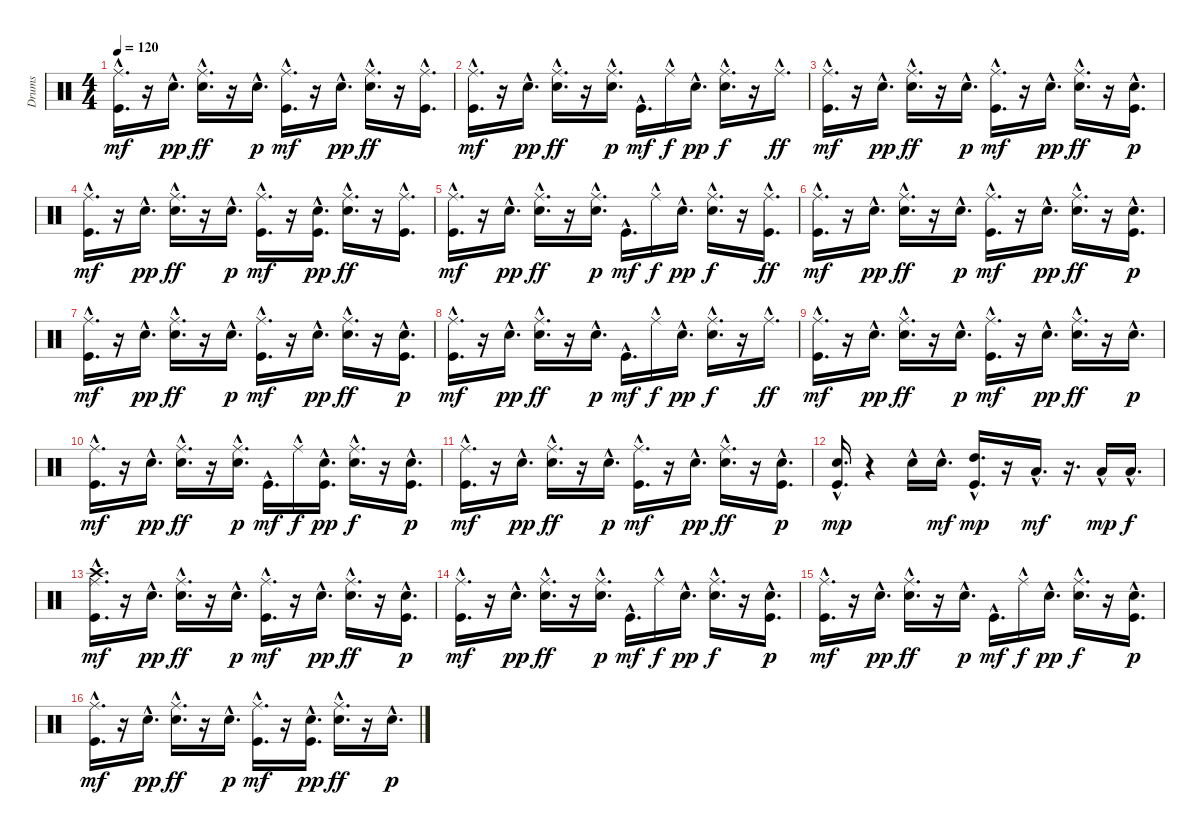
\track ("Drums" "Drums") {instrument percussion}
\staff {score}
\articulation defaults
\ts (4 4)
\tempo 120
\clef neutral
\ks c
("Kick (hit)"{hac} "Ride (middle)"{hac}).16{d dy mf} r.16 "Snare (hit) 2"{hac}.16{d dy pp} ("Snare (hit) 2"{hac} "Ride (middle)"{hac}).16{d dy ff} r.16 "Snare (hit) 2"{hac}.16{d dy p} ("Kick (hit)"{hac} "Ride (middle)"{hac}).16{d dy mf} r.16 "Snare (hit) 2"{hac}.16{d dy pp} ("Snare (hit) 2"{hac} "Ride (middle)"{hac}).16{d dy ff} r.16 ("Kick (hit)"{hac} "Ride (middle)"{hac}).16{d} |
("Kick (hit)"{hac} "Ride (middle)"{hac}).16{d dy mf} r.16 "Snare (hit) 2"{hac}.16{d dy pp} ("Snare (hit) 2"{hac} "Ride (middle)"{hac}).16{d dy ff} r.16 ("Snare (hit) 2"{hac} "Ride (middle)"{hac}).16{d dy p} "Kick (hit)"{hac}.16{d dy mf} "Ride (middle)"{hac}.16{dy f} "Snare (hit) 2"{hac}.16{d dy pp} ("Snare (hit) 2"{hac} "Ride (middle)"{hac}).16{d dy f} r.16 "Ride (middle)"{hac}.16{d dy ff} |
("Kick (hit)"{hac} "Ride (middle)"{hac}).16{d dy mf} r.16 "Snare (hit) 2"{hac}.16{d dy pp} ("Snare (hit) 2"{hac} "Ride (middle)"{hac}).16{d dy ff} r.16 "Snare (hit) 2"{hac}.16{d dy p} ("Kick (hit)"{hac} "Ride (middle)"{hac}).16{d dy mf} r.16 "Snare (hit) 2"{hac}.16{d dy pp} ("Snare (hit) 2"{hac} "Ride (middle)"{hac}).16{d dy ff} r.16 ("Kick (hit)"{hac} "Snare (hit) 2"{hac}).16{d dy p} |
("Kick (hit)"{hac} "Ride (middle)"{hac}).16{d dy mf} r.16 "Snare (hit) 2"{hac}.16{d dy pp} ("Snare (hit) 2"{hac} "Ride (middle)"{hac}).16{d dy ff} r.16 "Snare (hit) 2"{hac}.16{d dy p} ("Kick (hit)"{hac} "Ride (middle)"{hac}).16{d dy mf} r.16 ("Kick (hit)"{hac} "Snare (hit) 2"{hac}).16{d dy pp} ("Snare (hit) 2"{hac} "Ride (middle)"{hac}).16{d dy ff} r.16 ("Kick (hit)"{hac} "Ride (middle)"{hac}).16{d} |
("Kick (hit)"{hac} "Ride (middle)"{hac}).16{d dy mf} r.16 "Snare (hit) 2"{hac}.16{d dy pp} ("Snare (hit) 2"{hac} "Ride (middle)"{hac}).16{d dy ff} r.16 ("Snare (hit) 2"{hac} "Ride (middle)"{hac}).16{d dy p} "Kick (hit)"{hac}.16{d dy mf} "Ride (middle)"{hac}.16{dy f} "Snare (hit) 2"{hac}.16{d dy pp} ("Snare (hit) 2"{hac} "Ride (middle)"{hac}).16{d dy f} r.16 ("Kick (hit)"{hac} "Ride (middle)"{hac}).16{d dy ff} |
("Kick (hit)"{hac} "Ride (middle)"{hac}).16{d dy mf} r.16 "Snare (hit) 2"{hac}.16{d dy pp} ("Snare (hit) 2"{hac} "Ride (middle)"{hac}).16{d dy ff} r.16 "Snare (hit) 2"{hac}.16{d dy p} ("Kick (hit)"{hac} "Ride (middle)"{hac}).16{d dy mf} r.16 "Snare (hit) 2"{hac}.16{d dy pp} ("Snare (hit) 2"{hac} "Ride (middle)"{hac}).16{d dy ff} r.16 ("Kick (hit)"{hac} "Snare (hit) 2"{hac}).16{d dy p} |
("Kick (hit)"{hac} "Ride (middle)"{hac}).16{d dy mf} r.16 "Snare (hit) 2"{hac}.16{d dy pp} ("Snare (hit) 2"{hac} "Ride (middle)"{hac}).16{d dy ff} r.16 "Snare (hit) 2"{hac}.16{d dy p} ("Kick (hit)"{hac} "Ride (middle)"{hac}).16{d dy mf} r.16 "Snare (hit) 2"{hac}.16{d dy pp} ("Snare (hit) 2"{hac} "Ride (middle)"{hac}).16{d dy ff} r.16 ("Kick (hit)"{hac} "Snare (hit) 2"{hac}).16{d dy p} |
("Kick (hit)"{hac} "Ride (middle)"{hac}).16{d dy mf} r.16 "Snare (hit) 2"{hac}.16{d dy pp} ("Snare (hit) 2"{hac} "Ride (middle)"{hac}).16{d dy ff} r.16 "Snare (hit) 2"{hac}.16{d dy p} "Kick (hit)"{hac}.16{d dy mf} "Ride (middle)"{hac}.16{dy f} "Snare (hit) 2"{hac}.16{d dy pp} ("Snare (hit) 2"{hac} "Ride (middle)"{hac}).16{d dy f} r.16 "Ride (middle)"{hac}.16{d dy ff} |
("Kick (hit)"{hac} "Ride (middle)"{hac}).16{d dy mf} r.16 "Snare (hit) 2"{hac}.16{d dy pp} ("Snare (hit) 2"{hac} "Ride (middle)"{hac}).16{d dy ff} r.16 "Snare (hit) 2"{hac}.16{d dy p} ("Kick (hit)"{hac} "Ride (middle)"{hac}).16{d dy mf} r.16 "Snare (hit) 2"{hac}.16{d dy pp} ("Snare (hit) 2"{hac} "Ride (middle)"{hac}).16{d dy ff} r.16 "Snare (hit) 2"{hac}.16{d dy p} |
("Kick (hit)"{hac} "Ride (middle)"{hac}).16{d dy mf} r.16 "Snare (hit) 2"{hac}.16{d dy pp} ("Snare (hit) 2"{hac} "Ride (middle)"{hac}).16{d dy ff} r.16 ("Snare (hit) 2"{hac} "Ride (middle)"{hac}).16{d dy p} "Kick (hit)"{hac}.16{d dy mf} "Ride (middle)"{hac}.16{dy f} ("Kick (hit)"{hac} "Snare (hit) 2"{hac}).16{d dy pp} ("Snare (hit) 2"{hac} "Ride (middle)"{hac}).16{d dy f} r.16 ("Kick (hit)"{hac} "Snare (hit) 2"{hac}).16{d dy p} |
("Kick (hit)"{hac} "Ride (middle)"{hac}).16{d dy mf} r.16 "Snare (hit) 2"{hac}.16{d dy pp} ("Snare (hit) 2"{hac} "Ride (middle)"{hac}).16{d dy ff} r.16 "Snare (hit) 2"{hac}.16{d dy p} ("Kick (hit)"{hac} "Ride (middle)"{hac}).16{d dy mf} r.16 "Snare (hit) 2"{hac}.16{d dy pp} ("Snare (hit) 2"{hac} "Ride (middle)"{hac}).16{d dy ff} r.16 ("Kick (hit)"{hac} "Snare (hit) 2"{hac}).16{d dy p} |
("Kick (hit)"{hac} "Snare (hit) 2"{hac}).16{d dy mp} r.4 "Snare (hit) 2"{hac}.16 "Snare (hit) 2"{hac}.16{d dy mf} ("Kick (hit)"{hac} "High Tom (hit)"{hac}).16{d dy mp} r.16 "Low Tom (hit)"{hac}.16{d dy mf} r.16{d} "Low Floor Tom (hit)"{hac}.16{dy mp} "Low Floor Tom (hit)"{hac}.16{d dy f} |
("Kick (hit)"{hac} "Ride (middle)"{hac} "Crash high (hit)"{hac}).16{d dy mf} r.16 "Snare (hit) 2"{hac}.16{d dy pp} ("Snare (hit) 2"{hac} "Ride (middle)"{hac}).16{d dy ff} r.16 "Snare (hit) 2"{hac}.16{d dy p} ("Kick (hit)"{hac} "Ride (middle)"{hac}).16{d dy mf} r.16 "Snare (hit) 2"{hac}.16{d dy pp} ("Snare (hit) 2"{hac} "Ride (middle)"{hac}).16{d dy ff} r.16 ("Kick (hit)"{hac} "Snare (hit) 2"{hac}).16{d dy p} |
("Kick (hit)"{hac} "Ride (middle)"{hac}).16{d dy mf} r.16 "Snare (hit) 2"{hac}.16{d dy pp} ("Snare (hit) 2"{hac} "Ride (middle)"{hac}).16{d dy ff} r.16 ("Snare (hit) 2"{hac} "Ride (middle)"{hac}).16{d dy p} "Kick (hit)"{hac}.16{d dy mf} "Ride (middle)"{hac}.16{dy f} "Snare (hit) 2"{hac}.16{d dy pp} ("Snare (hit) 2"{hac} "Ride (middle)"{hac}).16{d dy f} r.16 ("Kick (hit)"{hac} "Snare (hit) 2"{hac}).16{d dy p} |
("Kick (hit)"{hac} "Ride (middle)"{hac}).16{d dy mf} r.16 "Snare (hit) 2"{hac}.16{d dy pp} ("Snare (hit) 2"{hac} "Ride (middle)"{hac}).16{d dy ff} r.16 "Snare (hit) 2"{hac}.16{d dy p} "Kick (hit)"{hac}.16{d dy mf} "Ride (middle)"{hac}.16{dy f} "Snare (hit) 2"{hac}.16{d dy pp} ("Snare (hit) 2"{hac} "Ride (middle)"{hac}).16{d dy f} r.16 ("Kick (hit)"{hac} "Snare (hit) 2"{hac}).16{d dy p} |
("Kick (hit)"{hac} "Ride (middle)"{hac}).16{d dy mf} r.16 "Snare (hit) 2"{hac}.16{d dy pp} ("Snare (hit) 2"{hac} "Ride (middle)"{hac}).16{d dy ff} r.16 "Snare (hit) 2"{hac}.16{d dy p} ("Kick (hit)"{hac} "Ride (middle)"{hac}).16{d dy mf} r.16 ("Kick (hit)"{hac} "Snare (hit) 2"{hac}).16{d dy pp} ("Snare (hit) 2"{hac} "Ride (middle)"{hac}).16{d dy ff} r.16 "Snare (hit) 2"{hac}.16{d dy p}
